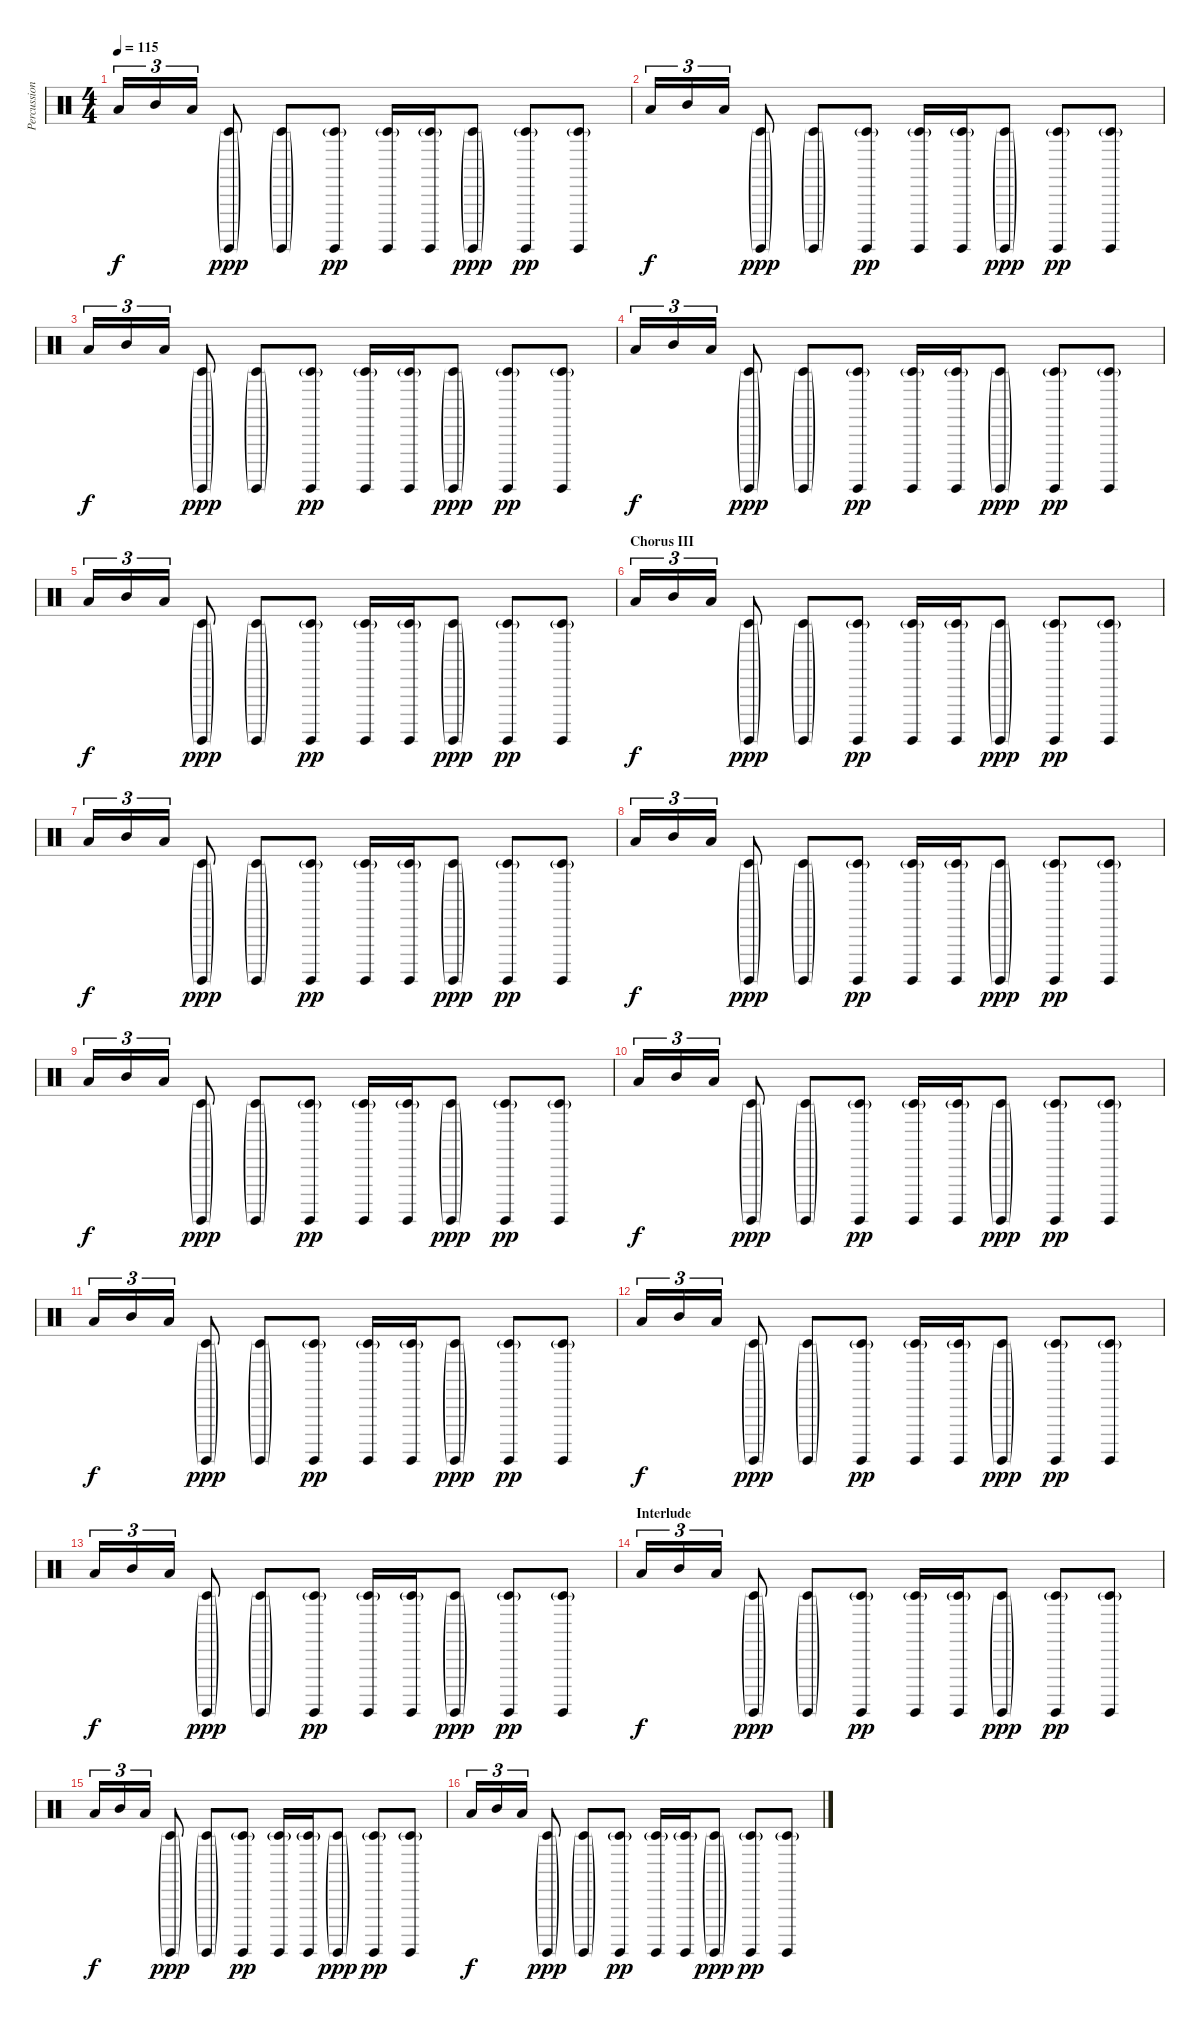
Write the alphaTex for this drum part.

\track ("Percussion - Low Tom" "Percussion") {instrument percussion}
\staff {score}
\articulation defaults
\ts (4 4)
\tempo 115
\clef neutral
\ks c "Low Tom (hit)".16{tu (3 2) dy f} "Mid Tom (hit)".16{tu (3 2)} "Low Tom (hit)".16{tu (3 2)}
("Timbale low (hit)"{g} "Surdo (hit)"{g}).8{dy ppp} ("Timbale low (hit)"{g} "Surdo (hit)"{g}).8 ("Timbale low (hit)"{g} "Surdo (hit)").8{dy pp} ("Timbale low (hit)"{g} "Surdo (hit)").16 ("Timbale low (hit)"{g} "Surdo (hit)").16 ("Timbale low (hit)"{g} "Surdo (hit)"{g}).8{dy ppp} ("Timbale low (hit)"{g} "Surdo (hit)").8{dy pp} ("Timbale low (hit)"{g} "Surdo (hit)").8 |
"Low Tom (hit)".16{tu (3 2) dy f} "Mid Tom (hit)".16{tu (3 2)} "Low Tom (hit)".16{tu (3 2)} ("Timbale low (hit)"{g} "Surdo (hit)"{g}).8{dy ppp} ("Timbale low (hit)"{g} "Surdo (hit)"{g}).8 ("Timbale low (hit)"{g} "Surdo (hit)").8{dy pp} ("Timbale low (hit)"{g} "Surdo (hit)").16 ("Timbale low (hit)"{g} "Surdo (hit)").16 ("Timbale low (hit)"{g} "Surdo (hit)"{g}).8{dy ppp} ("Timbale low (hit)"{g} "Surdo (hit)").8{dy pp} ("Timbale low (hit)"{g} "Surdo (hit)").8 |
"Low Tom (hit)".16{tu (3 2) dy f} "Mid Tom (hit)".16{tu (3 2)} "Low Tom (hit)".16{tu (3 2)} ("Timbale low (hit)"{g} "Surdo (hit)"{g}).8{dy ppp} ("Timbale low (hit)"{g} "Surdo (hit)"{g}).8 ("Timbale low (hit)"{g} "Surdo (hit)").8{dy pp} ("Timbale low (hit)"{g} "Surdo (hit)").16 ("Timbale low (hit)"{g} "Surdo (hit)").16 ("Timbale low (hit)"{g} "Surdo (hit)"{g}).8{dy ppp} ("Timbale low (hit)"{g} "Surdo (hit)").8{dy pp} ("Timbale low (hit)"{g} "Surdo (hit)").8 |
"Low Tom (hit)".16{tu (3 2) dy f} "Mid Tom (hit)".16{tu (3 2)} "Low Tom (hit)".16{tu (3 2)} ("Timbale low (hit)"{g} "Surdo (hit)"{g}).8{dy ppp} ("Timbale low (hit)"{g} "Surdo (hit)"{g}).8 ("Timbale low (hit)"{g} "Surdo (hit)").8{dy pp} ("Timbale low (hit)"{g} "Surdo (hit)").16 ("Timbale low (hit)"{g} "Surdo (hit)").16 ("Timbale low (hit)"{g} "Surdo (hit)"{g}).8{dy ppp} ("Timbale low (hit)"{g} "Surdo (hit)").8{dy pp} ("Timbale low (hit)"{g} "Surdo (hit)").8 |
"Low Tom (hit)".16{tu (3 2) dy f} "Mid Tom (hit)".16{tu (3 2)} "Low Tom (hit)".16{tu (3 2)} ("Timbale low (hit)"{g} "Surdo (hit)"{g}).8{dy ppp} ("Timbale low (hit)"{g} "Surdo (hit)"{g}).8 ("Timbale low (hit)"{g} "Surdo (hit)").8{dy pp} ("Timbale low (hit)"{g} "Surdo (hit)").16 ("Timbale low (hit)"{g} "Surdo (hit)").16 ("Timbale low (hit)"{g} "Surdo (hit)"{g}).8{dy ppp} ("Timbale low (hit)"{g} "Surdo (hit)").8{dy pp} ("Timbale low (hit)"{g} "Surdo (hit)").8 |
\section ("" "Chorus III")
"Low Tom (hit)".16{tu (3 2) dy f} "Mid Tom (hit)".16{tu (3 2)} "Low Tom (hit)".16{tu (3 2)} ("Timbale low (hit)"{g} "Surdo (hit)"{g}).8{dy ppp} ("Timbale low (hit)"{g} "Surdo (hit)"{g}).8 ("Timbale low (hit)"{g} "Surdo (hit)").8{dy pp} ("Timbale low (hit)"{g} "Surdo (hit)").16 ("Timbale low (hit)"{g} "Surdo (hit)").16 ("Timbale low (hit)"{g} "Surdo (hit)"{g}).8{dy ppp} ("Timbale low (hit)"{g} "Surdo (hit)").8{dy pp} ("Timbale low (hit)"{g} "Surdo (hit)").8 |
"Low Tom (hit)".16{tu (3 2) dy f} "Mid Tom (hit)".16{tu (3 2)} "Low Tom (hit)".16{tu (3 2)} ("Timbale low (hit)"{g} "Surdo (hit)"{g}).8{dy ppp} ("Timbale low (hit)"{g} "Surdo (hit)"{g}).8 ("Timbale low (hit)"{g} "Surdo (hit)").8{dy pp} ("Timbale low (hit)"{g} "Surdo (hit)").16 ("Timbale low (hit)"{g} "Surdo (hit)").16 ("Timbale low (hit)"{g} "Surdo (hit)"{g}).8{dy ppp} ("Timbale low (hit)"{g} "Surdo (hit)").8{dy pp} ("Timbale low (hit)"{g} "Surdo (hit)").8 |
"Low Tom (hit)".16{tu (3 2) dy f} "Mid Tom (hit)".16{tu (3 2)} "Low Tom (hit)".16{tu (3 2)} ("Timbale low (hit)"{g} "Surdo (hit)"{g}).8{dy ppp} ("Timbale low (hit)"{g} "Surdo (hit)"{g}).8 ("Timbale low (hit)"{g} "Surdo (hit)").8{dy pp} ("Timbale low (hit)"{g} "Surdo (hit)").16 ("Timbale low (hit)"{g} "Surdo (hit)").16 ("Timbale low (hit)"{g} "Surdo (hit)"{g}).8{dy ppp} ("Timbale low (hit)"{g} "Surdo (hit)").8{dy pp} ("Timbale low (hit)"{g} "Surdo (hit)").8 |
"Low Tom (hit)".16{tu (3 2) dy f} "Mid Tom (hit)".16{tu (3 2)} "Low Tom (hit)".16{tu (3 2)} ("Timbale low (hit)"{g} "Surdo (hit)"{g}).8{dy ppp} ("Timbale low (hit)"{g} "Surdo (hit)"{g}).8 ("Timbale low (hit)"{g} "Surdo (hit)").8{dy pp} ("Timbale low (hit)"{g} "Surdo (hit)").16 ("Timbale low (hit)"{g} "Surdo (hit)").16 ("Timbale low (hit)"{g} "Surdo (hit)"{g}).8{dy ppp} ("Timbale low (hit)"{g} "Surdo (hit)").8{dy pp} ("Timbale low (hit)"{g} "Surdo (hit)").8 |
"Low Tom (hit)".16{tu (3 2) dy f} "Mid Tom (hit)".16{tu (3 2)} "Low Tom (hit)".16{tu (3 2)} ("Timbale low (hit)"{g} "Surdo (hit)"{g}).8{dy ppp} ("Timbale low (hit)"{g} "Surdo (hit)"{g}).8 ("Timbale low (hit)"{g} "Surdo (hit)").8{dy pp} ("Timbale low (hit)"{g} "Surdo (hit)").16 ("Timbale low (hit)"{g} "Surdo (hit)").16 ("Timbale low (hit)"{g} "Surdo (hit)"{g}).8{dy ppp} ("Timbale low (hit)"{g} "Surdo (hit)").8{dy pp} ("Timbale low (hit)"{g} "Surdo (hit)").8 |
"Low Tom (hit)".16{tu (3 2) dy f} "Mid Tom (hit)".16{tu (3 2)} "Low Tom (hit)".16{tu (3 2)} ("Timbale low (hit)"{g} "Surdo (hit)"{g}).8{dy ppp} ("Timbale low (hit)"{g} "Surdo (hit)"{g}).8 ("Timbale low (hit)"{g} "Surdo (hit)").8{dy pp} ("Timbale low (hit)"{g} "Surdo (hit)").16 ("Timbale low (hit)"{g} "Surdo (hit)").16 ("Timbale low (hit)"{g} "Surdo (hit)"{g}).8{dy ppp} ("Timbale low (hit)"{g} "Surdo (hit)").8{dy pp} ("Timbale low (hit)"{g} "Surdo (hit)").8 |
"Low Tom (hit)".16{tu (3 2) dy f} "Mid Tom (hit)".16{tu (3 2)} "Low Tom (hit)".16{tu (3 2)} ("Timbale low (hit)"{g} "Surdo (hit)"{g}).8{dy ppp} ("Timbale low (hit)"{g} "Surdo (hit)"{g}).8 ("Timbale low (hit)"{g} "Surdo (hit)").8{dy pp} ("Timbale low (hit)"{g} "Surdo (hit)").16 ("Timbale low (hit)"{g} "Surdo (hit)").16 ("Timbale low (hit)"{g} "Surdo (hit)"{g}).8{dy ppp} ("Timbale low (hit)"{g} "Surdo (hit)").8{dy pp} ("Timbale low (hit)"{g} "Surdo (hit)").8 |
"Low Tom (hit)".16{tu (3 2) dy f} "Mid Tom (hit)".16{tu (3 2)} "Low Tom (hit)".16{tu (3 2)} ("Timbale low (hit)"{g} "Surdo (hit)"{g}).8{dy ppp} ("Timbale low (hit)"{g} "Surdo (hit)"{g}).8 ("Timbale low (hit)"{g} "Surdo (hit)").8{dy pp} ("Timbale low (hit)"{g} "Surdo (hit)").16 ("Timbale low (hit)"{g} "Surdo (hit)").16 ("Timbale low (hit)"{g} "Surdo (hit)"{g}).8{dy ppp} ("Timbale low (hit)"{g} "Surdo (hit)").8{dy pp} ("Timbale low (hit)"{g} "Surdo (hit)").8 |
\section ("" "Interlude")
"Low Tom (hit)".16{tu (3 2) dy f} "Mid Tom (hit)".16{tu (3 2)} "Low Tom (hit)".16{tu (3 2)} ("Timbale low (hit)"{g} "Surdo (hit)"{g}).8{dy ppp} ("Timbale low (hit)"{g} "Surdo (hit)"{g}).8 ("Timbale low (hit)"{g} "Surdo (hit)").8{dy pp} ("Timbale low (hit)"{g} "Surdo (hit)").16 ("Timbale low (hit)"{g} "Surdo (hit)").16 ("Timbale low (hit)"{g} "Surdo (hit)"{g}).8{dy ppp} ("Timbale low (hit)"{g} "Surdo (hit)").8{dy pp} ("Timbale low (hit)"{g} "Surdo (hit)").8 |
"Low Tom (hit)".16{tu (3 2) dy f} "Mid Tom (hit)".16{tu (3 2)} "Low Tom (hit)".16{tu (3 2)} ("Timbale low (hit)"{g} "Surdo (hit)"{g}).8{dy ppp} ("Timbale low (hit)"{g} "Surdo (hit)"{g}).8 ("Timbale low (hit)"{g} "Surdo (hit)").8{dy pp} ("Timbale low (hit)"{g} "Surdo (hit)").16 ("Timbale low (hit)"{g} "Surdo (hit)").16 ("Timbale low (hit)"{g} "Surdo (hit)"{g}).8{dy ppp} ("Timbale low (hit)"{g} "Surdo (hit)").8{dy pp} ("Timbale low (hit)"{g} "Surdo (hit)").8 |
"Low Tom (hit)".16{tu (3 2) dy f} "Mid Tom (hit)".16{tu (3 2)} "Low Tom (hit)".16{tu (3 2)} ("Timbale low (hit)"{g} "Surdo (hit)"{g}).8{dy ppp} ("Timbale low (hit)"{g} "Surdo (hit)"{g}).8 ("Timbale low (hit)"{g} "Surdo (hit)").8{dy pp} ("Timbale low (hit)"{g} "Surdo (hit)").16 ("Timbale low (hit)"{g} "Surdo (hit)").16 ("Timbale low (hit)"{g} "Surdo (hit)"{g}).8{dy ppp} ("Timbale low (hit)"{g} "Surdo (hit)").8{dy pp} ("Timbale low (hit)"{g} "Surdo (hit)").8
